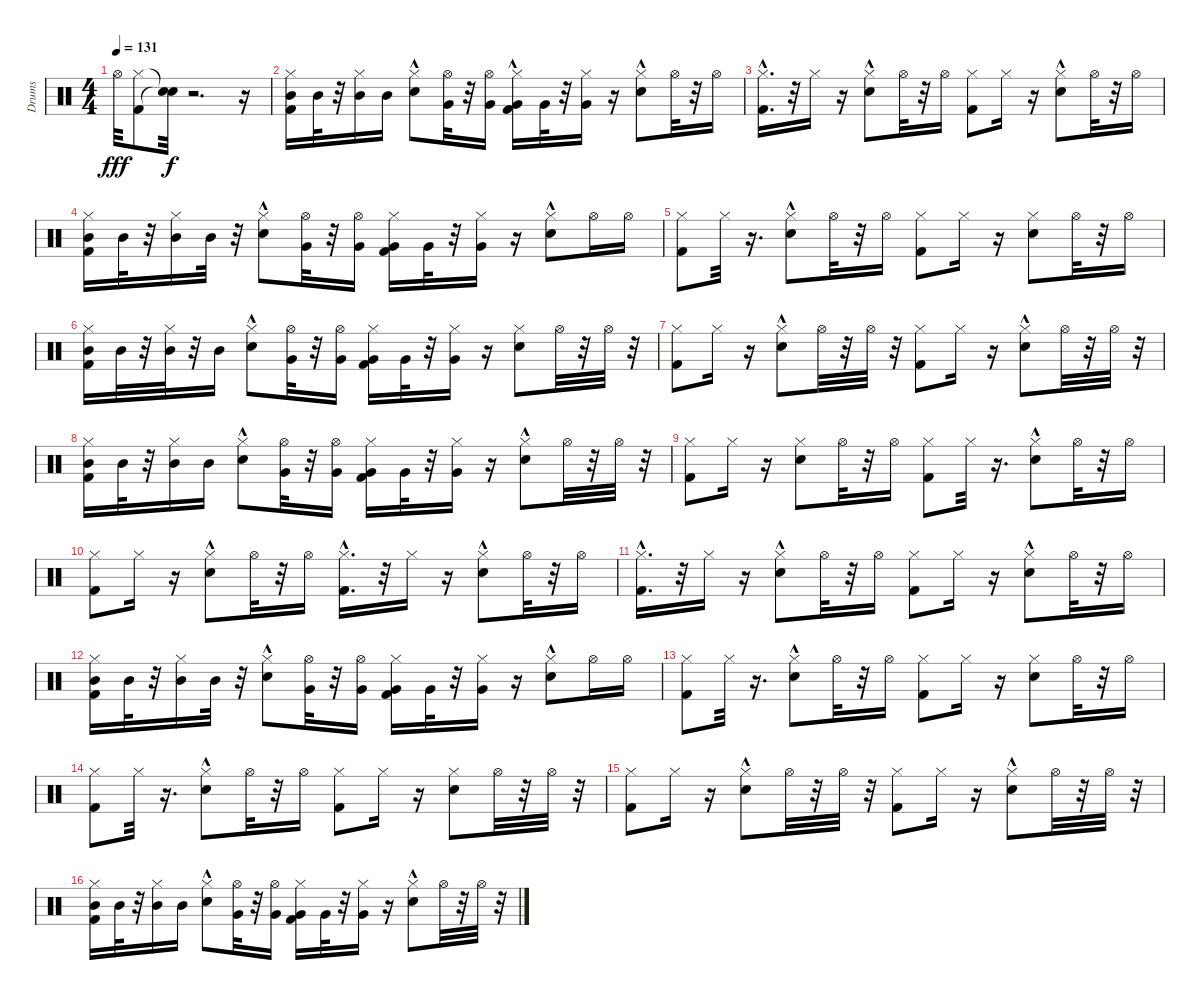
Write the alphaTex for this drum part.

\track ("Drums" "Drums") {instrument percussion}
\staff {score}
\articulation defaults
\ts (4 4)
\tempo 131
\clef neutral
\ks c "Hi-Hat (open)".32{dy fff}
("Hi-Hat (closed)" "Kick (hit) 2").8 ("Snare (hit)"{t} "Snare (hit)"{t}).32{dy f} r.2{d} r.16 |
("Kick (hit) 2" "Hi-Hat (closed)" "Mid Tom (hit)").16 "Mid Tom (hit)".32 r.32 ("Hi-Hat (closed)" "Mid Tom (hit)").16 "Mid Tom (hit)".16 ("Snare (hit) 2" "Hi-Hat (closed)"{hac}).8 ("Hi-Hat (open)" "Very Low Tom (hit)").32 r.32 ("Hi-Hat (open)" "Very Low Tom (hit)").16 ("Kick (hit) 2"{hac} "Hi-Hat (closed)" "Very Low Tom (hit)").16 "Very Low Tom (hit)".32 r.32 ("Hi-Hat (closed)" "Very Low Tom (hit)").16 r.16 ("Snare (hit) 2" "Hi-Hat (closed)"{hac}).8 "Hi-Hat (open)".32 r.32 "Hi-Hat (open)".16 |
("Kick (hit) 2"{hac} "Hi-Hat (closed)").16{d} r.32 "Hi-Hat (closed)".16 r.16 ("Snare (hit) 2" "Hi-Hat (closed)"{hac}).8 "Hi-Hat (open)".32 r.32 "Hi-Hat (open)".16 ("Kick (hit) 2" "Hi-Hat (closed)").8 "Hi-Hat (closed)".16 r.16 ("Snare (hit) 2" "Hi-Hat (closed)"{hac}).8 "Hi-Hat (open)".32 r.32 "Hi-Hat (open)".16 |
("Kick (hit) 2" "Hi-Hat (closed)" "Mid Tom (hit)").16 "Mid Tom (hit)".32 r.32 ("Hi-Hat (closed)" "Mid Tom (hit)").16 "Mid Tom (hit)".32 r.32 ("Snare (hit) 2" "Hi-Hat (closed)"{hac}).8 ("Hi-Hat (open)" "Very Low Tom (hit)").32 r.32 ("Hi-Hat (open)" "Very Low Tom (hit)").16 ("Kick (hit) 2" "Hi-Hat (closed)" "Very Low Tom (hit)").16 "Very Low Tom (hit)".32 r.32 ("Hi-Hat (closed)" "Very Low Tom (hit)").16 r.16 ("Snare (hit) 2" "Hi-Hat (closed)"{hac}).8 "Hi-Hat (open)".16 "Hi-Hat (open)".16 |
("Kick (hit) 2" "Hi-Hat (closed)").8 "Hi-Hat (closed)".32 r.16{d} ("Snare (hit) 2" "Hi-Hat (closed)"{hac}).8 "Hi-Hat (open)".32 r.32 "Hi-Hat (open)".16 ("Kick (hit) 2" "Hi-Hat (closed)").8 "Hi-Hat (closed)".16 r.16 ("Snare (hit) 2" "Hi-Hat (closed)").8 "Hi-Hat (open)".32 r.32 "Hi-Hat (open)".16 |
("Kick (hit) 2" "Hi-Hat (closed)" "Mid Tom (hit)").16 "Mid Tom (hit)".32 r.32 ("Hi-Hat (closed)" "Mid Tom (hit)").32 r.32 "Mid Tom (hit)".16 ("Snare (hit) 2" "Hi-Hat (closed)"{hac}).8 ("Hi-Hat (open)" "Very Low Tom (hit)").32 r.32 ("Hi-Hat (open)" "Very Low Tom (hit)").16 ("Kick (hit) 2" "Hi-Hat (closed)" "Very Low Tom (hit)").16 "Very Low Tom (hit)".32 r.32 ("Hi-Hat (closed)" "Very Low Tom (hit)").16 r.16 ("Snare (hit) 2" "Hi-Hat (closed)").8 "Hi-Hat (open)".32 r.32 "Hi-Hat (open)".32 r.32 |
("Kick (hit) 2" "Hi-Hat (closed)").8 "Hi-Hat (closed)".16 r.16 ("Snare (hit) 2" "Hi-Hat (closed)"{hac}).8 "Hi-Hat (open)".32 r.32 "Hi-Hat (open)".32 r.32 ("Kick (hit) 2" "Hi-Hat (closed)").8 "Hi-Hat (closed)".16 r.16 ("Snare (hit) 2" "Hi-Hat (closed)"{hac}).8 "Hi-Hat (open)".32 r.32 "Hi-Hat (open)".32 r.32 |
("Kick (hit) 2" "Hi-Hat (closed)" "Mid Tom (hit)").16 "Mid Tom (hit)".32 r.32 ("Hi-Hat (closed)" "Mid Tom (hit)").16 "Mid Tom (hit)".16 ("Snare (hit) 2" "Hi-Hat (closed)"{hac}).8 ("Hi-Hat (open)" "Very Low Tom (hit)").32 r.32 ("Hi-Hat (open)" "Very Low Tom (hit)").16 ("Kick (hit) 2" "Hi-Hat (closed)" "Very Low Tom (hit)").16 "Very Low Tom (hit)".32 r.32 ("Hi-Hat (closed)" "Very Low Tom (hit)").16 r.16 ("Snare (hit) 2" "Hi-Hat (closed)"{hac}).8 "Hi-Hat (open)".32 r.32 "Hi-Hat (open)".32 r.32 |
("Kick (hit) 2" "Hi-Hat (closed)").8 "Hi-Hat (closed)".16 r.16 ("Snare (hit) 2" "Hi-Hat (closed)").8 "Hi-Hat (open)".32 r.32 "Hi-Hat (open)".16 ("Kick (hit) 2" "Hi-Hat (closed)").8 "Hi-Hat (closed)".32 r.16{d} ("Snare (hit) 2" "Hi-Hat (closed)"{hac}).8 "Hi-Hat (open)".32 r.32 "Hi-Hat (open)".16 |
("Kick (hit) 2" "Hi-Hat (closed)").8 "Hi-Hat (closed)".16 r.16 ("Snare (hit) 2" "Hi-Hat (closed)"{hac}).8 "Hi-Hat (open)".32 r.32 "Hi-Hat (open)".16 ("Kick (hit) 2"{hac} "Hi-Hat (closed)").16{d} r.32 "Hi-Hat (closed)".16 r.16 ("Snare (hit) 2" "Hi-Hat (closed)"{hac}).8 "Hi-Hat (open)".32 r.32 "Hi-Hat (open)".16 |
("Kick (hit) 2"{hac} "Hi-Hat (closed)").16{d} r.32 "Hi-Hat (closed)".16 r.16 ("Snare (hit) 2" "Hi-Hat (closed)"{hac}).8 "Hi-Hat (open)".32 r.32 "Hi-Hat (open)".16 ("Kick (hit) 2" "Hi-Hat (closed)").8 "Hi-Hat (closed)".16 r.16 ("Snare (hit) 2" "Hi-Hat (closed)"{hac}).8 "Hi-Hat (open)".32 r.32 "Hi-Hat (open)".16 |
("Kick (hit) 2" "Hi-Hat (closed)" "Mid Tom (hit)").16 "Mid Tom (hit)".32 r.32 ("Hi-Hat (closed)" "Mid Tom (hit)").16 "Mid Tom (hit)".32 r.32 ("Snare (hit) 2" "Hi-Hat (closed)"{hac}).8 ("Hi-Hat (open)" "Very Low Tom (hit)").32 r.32 ("Hi-Hat (open)" "Very Low Tom (hit)").16 ("Kick (hit) 2" "Hi-Hat (closed)" "Very Low Tom (hit)").16 "Very Low Tom (hit)".32 r.32 ("Hi-Hat (closed)" "Very Low Tom (hit)").16 r.16 ("Snare (hit) 2" "Hi-Hat (closed)"{hac}).8 "Hi-Hat (open)".16 "Hi-Hat (open)".16 |
("Kick (hit) 2" "Hi-Hat (closed)").8 "Hi-Hat (closed)".32 r.16{d} ("Snare (hit) 2" "Hi-Hat (closed)"{hac}).8 "Hi-Hat (open)".32 r.32 "Hi-Hat (open)".16 ("Kick (hit) 2" "Hi-Hat (closed)").8 "Hi-Hat (closed)".16 r.16 ("Snare (hit) 2" "Hi-Hat (closed)").8 "Hi-Hat (open)".32 r.32 "Hi-Hat (open)".16 |
("Kick (hit) 2" "Hi-Hat (closed)").8 "Hi-Hat (closed)".32 r.16{d} ("Snare (hit) 2" "Hi-Hat (closed)"{hac}).8 "Hi-Hat (open)".32 r.32 "Hi-Hat (open)".16 ("Kick (hit) 2" "Hi-Hat (closed)").8 "Hi-Hat (closed)".16 r.16 ("Snare (hit) 2" "Hi-Hat (closed)").8 "Hi-Hat (open)".32 r.32 "Hi-Hat (open)".32 r.32 |
("Kick (hit) 2" "Hi-Hat (closed)").8 "Hi-Hat (closed)".16 r.16 ("Snare (hit) 2" "Hi-Hat (closed)"{hac}).8 "Hi-Hat (open)".32 r.32 "Hi-Hat (open)".32 r.32 ("Kick (hit) 2" "Hi-Hat (closed)").8 "Hi-Hat (closed)".16 r.16 ("Snare (hit) 2" "Hi-Hat (closed)"{hac}).8 "Hi-Hat (open)".32 r.32 "Hi-Hat (open)".32 r.32 |
("Kick (hit) 2" "Hi-Hat (closed)" "Mid Tom (hit)").16 "Mid Tom (hit)".32 r.32 ("Hi-Hat (closed)" "Mid Tom (hit)").16 "Mid Tom (hit)".16 ("Snare (hit) 2" "Hi-Hat (closed)"{hac}).8 ("Hi-Hat (open)" "Very Low Tom (hit)").32 r.32 ("Hi-Hat (open)" "Very Low Tom (hit)").16 ("Kick (hit) 2" "Hi-Hat (closed)" "Very Low Tom (hit)").16 "Very Low Tom (hit)".32 r.32 ("Hi-Hat (closed)" "Very Low Tom (hit)").16 r.16 ("Snare (hit) 2" "Hi-Hat (closed)"{hac}).8 "Hi-Hat (open)".32 r.32 "Hi-Hat (open)".32 r.32
